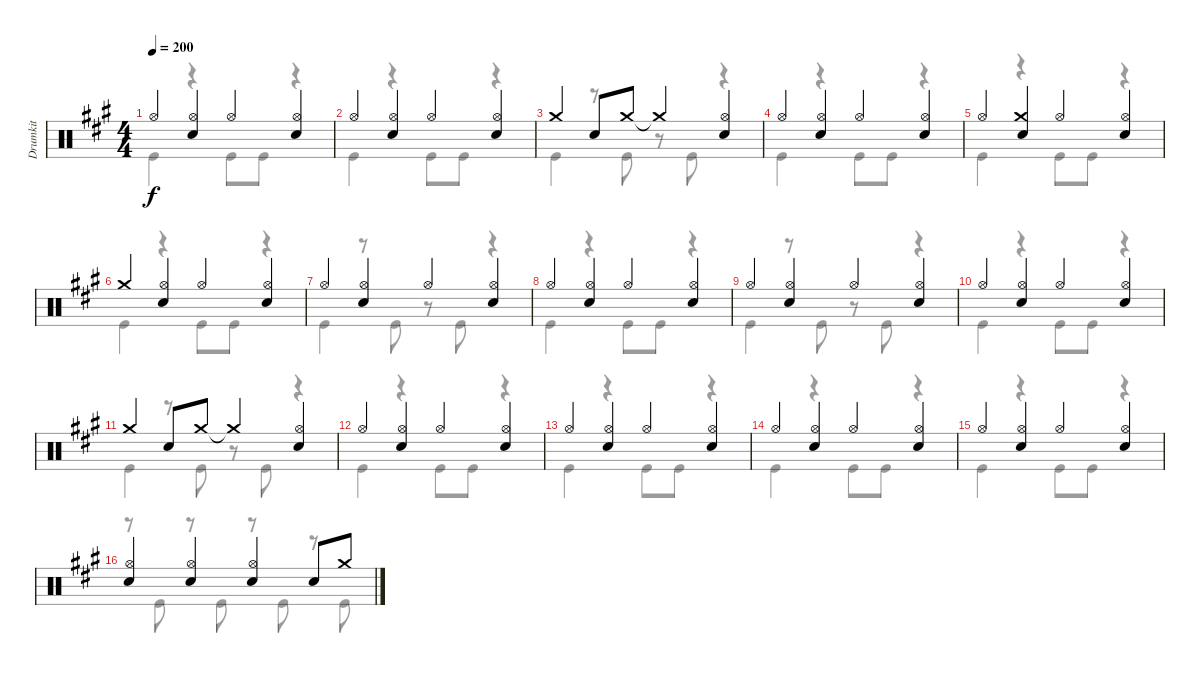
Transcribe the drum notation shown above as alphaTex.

\track ("Drumkit" "Drumkit") {instrument percussion}
\staff {score}
\articulation defaults
\voice
\ts (4 4)
\tempo 200
\clef neutral
\ks a "Hi-Hat (open)".4{dy f}
("Hi-Hat (open)" "Snare (hit) 2").4 "Hi-Hat (open)".4 ("Hi-Hat (open)" "Snare (hit) 2").4 |
"Hi-Hat (open)".4 ("Hi-Hat (open)" "Snare (hit) 2").4 "Hi-Hat (open)".4 ("Hi-Hat (open)" "Snare (hit) 2").4 |
"Crash medium (hit)".4 "Snare (hit) 2".8 "Crash medium (hit)".8 "Crash medium (hit)"{t}.4 ("Hi-Hat (open)" "Snare (hit) 2").4 |
"Hi-Hat (open)".4 ("Hi-Hat (open)" "Snare (hit) 2").4 "Hi-Hat (open)".4 ("Hi-Hat (open)" "Snare (hit) 2").4 |
"Hi-Hat (open)".4 ("Snare (hit) 2" "Crash medium (hit)").4 "Hi-Hat (open)".4 ("Hi-Hat (open)" "Snare (hit) 2").4 |
"Crash medium (hit)".4 ("Hi-Hat (open)" "Snare (hit) 2").4 "Hi-Hat (open)".4 ("Hi-Hat (open)" "Snare (hit) 2").4 |
"Hi-Hat (open)".4 ("Hi-Hat (open)" "Snare (hit) 2").4 "Hi-Hat (open)".4 ("Hi-Hat (open)" "Snare (hit) 2").4 |
"Hi-Hat (open)".4 ("Hi-Hat (open)" "Snare (hit) 2").4 "Hi-Hat (open)".4 ("Hi-Hat (open)" "Snare (hit) 2").4 |
"Hi-Hat (open)".4 ("Hi-Hat (open)" "Snare (hit) 2").4 "Hi-Hat (open)".4 ("Hi-Hat (open)" "Snare (hit) 2").4 |
"Hi-Hat (open)".4 ("Hi-Hat (open)" "Snare (hit) 2").4 "Hi-Hat (open)".4 ("Hi-Hat (open)" "Snare (hit) 2").4 |
"Crash medium (hit)".4 "Snare (hit) 2".8 "Crash medium (hit)".8 "Crash medium (hit)"{t}.4 ("Hi-Hat (open)" "Snare (hit) 2").4 |
"Hi-Hat (open)".4 ("Hi-Hat (open)" "Snare (hit) 2").4 "Hi-Hat (open)".4 ("Hi-Hat (open)" "Snare (hit) 2").4 |
"Hi-Hat (open)".4 ("Hi-Hat (open)" "Snare (hit) 2").4 "Hi-Hat (open)".4 ("Hi-Hat (open)" "Snare (hit) 2").4 |
"Hi-Hat (open)".4 ("Hi-Hat (open)" "Snare (hit) 2").4 "Hi-Hat (open)".4 ("Hi-Hat (open)" "Snare (hit) 2").4 |
"Hi-Hat (open)".4 ("Hi-Hat (open)" "Snare (hit) 2").4 "Hi-Hat (open)".4 ("Hi-Hat (open)" "Snare (hit) 2").4 |
("Hi-Hat (open)" "Snare (hit) 2").4 ("Hi-Hat (open)" "Snare (hit) 2").4 ("Hi-Hat (open)" "Snare (hit) 2").4 "Snare (hit) 2".8 "Crash medium (hit)".8
\voice
\clef neutral
\ottava regular
\simile none
\ks a "Kick (hit)".4{dy f}
r.4 "Kick (hit)".8 "Kick (hit)".8 r.4 |
"Kick (hit)".4 r.4 "Kick (hit)".8 "Kick (hit)".8 r.4 |
"Kick (hit)".4 r.8 "Kick (hit)".8 r.8 "Kick (hit)".8 r.4 |
"Kick (hit)".4 r.4 "Kick (hit)".8 "Kick (hit)".8 r.4 |
"Kick (hit)".4 r.4 "Kick (hit)".8 "Kick (hit)".8 r.4 |
"Kick (hit)".4 r.4 "Kick (hit)".8 "Kick (hit)".8 r.4 |
"Kick (hit)".4 r.8 "Kick (hit)".8 r.8 "Kick (hit)".8 r.4 |
"Kick (hit)".4 r.4 "Kick (hit)".8 "Kick (hit)".8 r.4 |
"Kick (hit)".4 r.8 "Kick (hit)".8 r.8 "Kick (hit)".8 r.4 |
"Kick (hit)".4 r.4 "Kick (hit)".8 "Kick (hit)".8 r.4 |
"Kick (hit)".4 r.8 "Kick (hit)".8 r.8 "Kick (hit)".8 r.4 |
"Kick (hit)".4 r.4 "Kick (hit)".8 "Kick (hit)".8 r.4 |
"Kick (hit)".4 r.4 "Kick (hit)".8 "Kick (hit)".8 r.4 |
"Kick (hit)".4 r.4 "Kick (hit)".8 "Kick (hit)".8 r.4 |
"Kick (hit)".4 r.4 "Kick (hit)".8 "Kick (hit)".8 r.4 |
r.8 "Kick (hit)".8 r.8 "Kick (hit)".8 r.8 "Kick (hit)".8 r.8 "Kick (hit)".8
